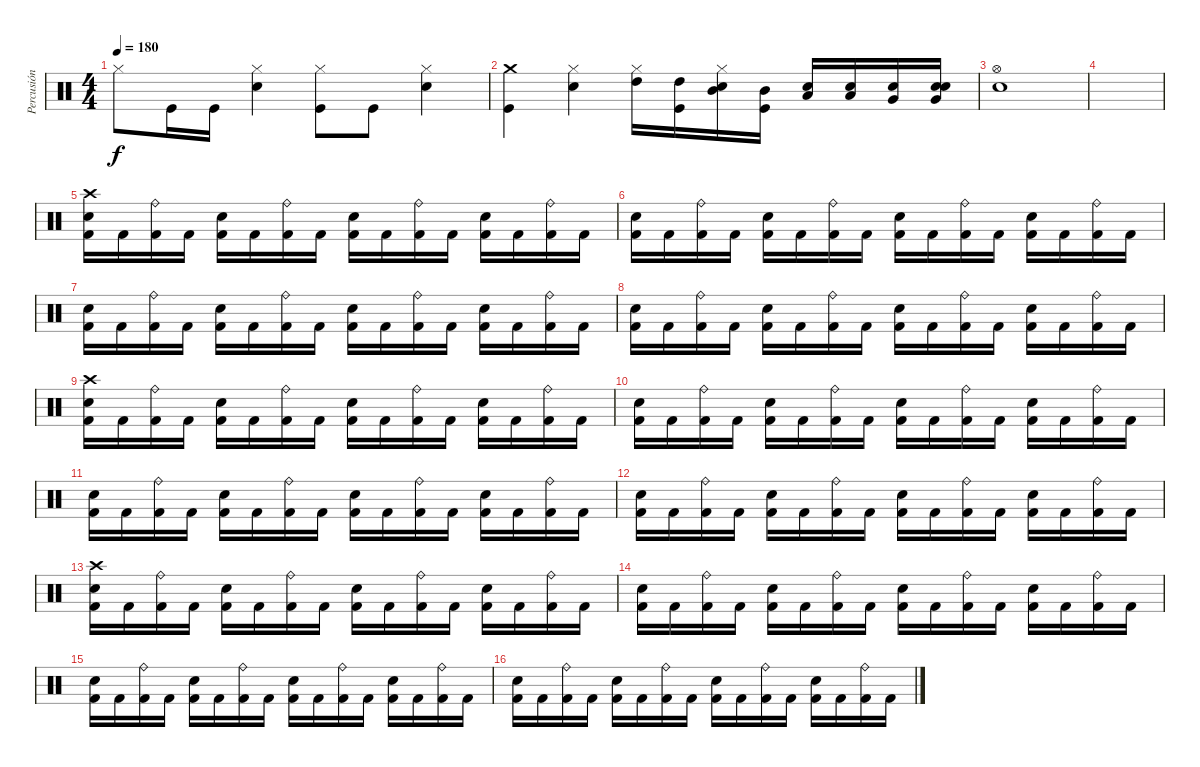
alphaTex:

\track ("Percusión" "Percusión") {instrument percussion}
\staff {score}
\articulation defaults
\ts (4 4)
\tempo 180
\clef neutral
\ks c "Hi-Hat (closed)".8{dy f} "Kick (hit)".16 "Kick (hit)".16
("Snare (hit) 2" "Hi-Hat (closed)").4 ("Kick (hit)" "Hi-Hat (closed)").8 "Kick (hit)".8 ("Snare (hit) 2" "Hi-Hat (closed)").4 |
("Kick (hit)" "Crash medium (hit)").4 ("Hi-Hat (closed)" "Snare (hit) 2").4 ("Hi-Hat (closed)" "High Tom (hit)").16 ("Kick (hit)" "High Tom (hit)").16 ("Snare (hit) 2" "Hi-Hat (closed)" "Mid Tom (hit)").16 ("Kick (hit)" "Mid Tom (hit)").16 ("Snare (hit) 2" "Low Tom (hit)").16 ("Snare (hit) 2" "Low Tom (hit)").16 ("Snare (hit) 2" "Very Low Tom (hit)").16 ("Snare (hit) 2" "Snare (hit)" "Very Low Tom (hit)").16 |
("Electric Snare (hit)" "Hi-Hat (open)").1 |
|
("Snare (hit) 2" "Crash high (hit)" "Kick (hit) 2").16 "Kick (hit) 2".16 ("Ride (bell)" "Kick (hit) 2").16 "Kick (hit) 2".16 ("Snare (hit) 2" "Kick (hit) 2").16 "Kick (hit) 2".16 ("Ride (bell)" "Kick (hit) 2").16 "Kick (hit) 2".16 ("Snare (hit) 2" "Kick (hit) 2").16 "Kick (hit) 2".16 ("Ride (bell)" "Kick (hit) 2").16 "Kick (hit) 2".16 ("Snare (hit) 2" "Kick (hit) 2").16 "Kick (hit) 2".16 ("Ride (bell)" "Kick (hit) 2").16 "Kick (hit) 2".16 |
("Snare (hit) 2" "Kick (hit) 2").16 "Kick (hit) 2".16 ("Ride (bell)" "Kick (hit) 2").16 "Kick (hit) 2".16 ("Snare (hit) 2" "Kick (hit) 2").16 "Kick (hit) 2".16 ("Ride (bell)" "Kick (hit) 2").16 "Kick (hit) 2".16 ("Snare (hit) 2" "Kick (hit) 2").16 "Kick (hit) 2".16 ("Ride (bell)" "Kick (hit) 2").16 "Kick (hit) 2".16 ("Snare (hit) 2" "Kick (hit) 2").16 "Kick (hit) 2".16 ("Ride (bell)" "Kick (hit) 2").16 "Kick (hit) 2".16 |
("Snare (hit) 2" "Kick (hit) 2").16 "Kick (hit) 2".16 ("Ride (bell)" "Kick (hit) 2").16 "Kick (hit) 2".16 ("Snare (hit) 2" "Kick (hit) 2").16 "Kick (hit) 2".16 ("Ride (bell)" "Kick (hit) 2").16 "Kick (hit) 2".16 ("Snare (hit) 2" "Kick (hit) 2").16 "Kick (hit) 2".16 ("Ride (bell)" "Kick (hit) 2").16 "Kick (hit) 2".16 ("Snare (hit) 2" "Kick (hit) 2").16 "Kick (hit) 2".16 ("Ride (bell)" "Kick (hit) 2").16 "Kick (hit) 2".16 |
("Snare (hit) 2" "Kick (hit) 2").16 "Kick (hit) 2".16 ("Ride (bell)" "Kick (hit) 2").16 "Kick (hit) 2".16 ("Snare (hit) 2" "Kick (hit) 2").16 "Kick (hit) 2".16 ("Ride (bell)" "Kick (hit) 2").16 "Kick (hit) 2".16 ("Snare (hit) 2" "Kick (hit) 2").16 "Kick (hit) 2".16 ("Ride (bell)" "Kick (hit) 2").16 "Kick (hit) 2".16 ("Snare (hit) 2" "Kick (hit) 2").16 "Kick (hit) 2".16 ("Ride (bell)" "Kick (hit) 2").16 "Kick (hit) 2".16 |
("Snare (hit) 2" "Crash high (hit)" "Kick (hit) 2").16 "Kick (hit) 2".16 ("Ride (bell)" "Kick (hit) 2").16 "Kick (hit) 2".16 ("Snare (hit) 2" "Kick (hit) 2").16 "Kick (hit) 2".16 ("Ride (bell)" "Kick (hit) 2").16 "Kick (hit) 2".16 ("Snare (hit) 2" "Kick (hit) 2").16 "Kick (hit) 2".16 ("Ride (bell)" "Kick (hit) 2").16 "Kick (hit) 2".16 ("Snare (hit) 2" "Kick (hit) 2").16 "Kick (hit) 2".16 ("Ride (bell)" "Kick (hit) 2").16 "Kick (hit) 2".16 |
("Snare (hit) 2" "Kick (hit) 2").16 "Kick (hit) 2".16 ("Ride (bell)" "Kick (hit) 2").16 "Kick (hit) 2".16 ("Snare (hit) 2" "Kick (hit) 2").16 "Kick (hit) 2".16 ("Ride (bell)" "Kick (hit) 2").16 "Kick (hit) 2".16 ("Snare (hit) 2" "Kick (hit) 2").16 "Kick (hit) 2".16 ("Ride (bell)" "Kick (hit) 2").16 "Kick (hit) 2".16 ("Snare (hit) 2" "Kick (hit) 2").16 "Kick (hit) 2".16 ("Ride (bell)" "Kick (hit) 2").16 "Kick (hit) 2".16 |
("Snare (hit) 2" "Kick (hit) 2").16 "Kick (hit) 2".16 ("Ride (bell)" "Kick (hit) 2").16 "Kick (hit) 2".16 ("Snare (hit) 2" "Kick (hit) 2").16 "Kick (hit) 2".16 ("Ride (bell)" "Kick (hit) 2").16 "Kick (hit) 2".16 ("Snare (hit) 2" "Kick (hit) 2").16 "Kick (hit) 2".16 ("Ride (bell)" "Kick (hit) 2").16 "Kick (hit) 2".16 ("Snare (hit) 2" "Kick (hit) 2").16 "Kick (hit) 2".16 ("Ride (bell)" "Kick (hit) 2").16 "Kick (hit) 2".16 |
("Snare (hit) 2" "Kick (hit) 2").16 "Kick (hit) 2".16 ("Ride (bell)" "Kick (hit) 2").16 "Kick (hit) 2".16 ("Snare (hit) 2" "Kick (hit) 2").16 "Kick (hit) 2".16 ("Ride (bell)" "Kick (hit) 2").16 "Kick (hit) 2".16 ("Snare (hit) 2" "Kick (hit) 2").16 "Kick (hit) 2".16 ("Ride (bell)" "Kick (hit) 2").16 "Kick (hit) 2".16 ("Snare (hit) 2" "Kick (hit) 2").16 "Kick (hit) 2".16 ("Ride (bell)" "Kick (hit) 2").16 "Kick (hit) 2".16 |
("Snare (hit) 2" "Crash high (hit)" "Kick (hit) 2").16 "Kick (hit) 2".16 ("Ride (bell)" "Kick (hit) 2").16 "Kick (hit) 2".16 ("Snare (hit) 2" "Kick (hit) 2").16 "Kick (hit) 2".16 ("Ride (bell)" "Kick (hit) 2").16 "Kick (hit) 2".16 ("Snare (hit) 2" "Kick (hit) 2").16 "Kick (hit) 2".16 ("Ride (bell)" "Kick (hit) 2").16 "Kick (hit) 2".16 ("Snare (hit) 2" "Kick (hit) 2").16 "Kick (hit) 2".16 ("Ride (bell)" "Kick (hit) 2").16 "Kick (hit) 2".16 |
("Snare (hit) 2" "Kick (hit) 2").16 "Kick (hit) 2".16 ("Ride (bell)" "Kick (hit) 2").16 "Kick (hit) 2".16 ("Snare (hit) 2" "Kick (hit) 2").16 "Kick (hit) 2".16 ("Ride (bell)" "Kick (hit) 2").16 "Kick (hit) 2".16 ("Snare (hit) 2" "Kick (hit) 2").16 "Kick (hit) 2".16 ("Ride (bell)" "Kick (hit) 2").16 "Kick (hit) 2".16 ("Snare (hit) 2" "Kick (hit) 2").16 "Kick (hit) 2".16 ("Ride (bell)" "Kick (hit) 2").16 "Kick (hit) 2".16 |
("Snare (hit) 2" "Kick (hit) 2").16 "Kick (hit) 2".16 ("Ride (bell)" "Kick (hit) 2").16 "Kick (hit) 2".16 ("Snare (hit) 2" "Kick (hit) 2").16 "Kick (hit) 2".16 ("Ride (bell)" "Kick (hit) 2").16 "Kick (hit) 2".16 ("Snare (hit) 2" "Kick (hit) 2").16 "Kick (hit) 2".16 ("Ride (bell)" "Kick (hit) 2").16 "Kick (hit) 2".16 ("Snare (hit) 2" "Kick (hit) 2").16 "Kick (hit) 2".16 ("Ride (bell)" "Kick (hit) 2").16 "Kick (hit) 2".16 |
("Snare (hit) 2" "Kick (hit) 2").16 "Kick (hit) 2".16 ("Ride (bell)" "Kick (hit) 2").16 "Kick (hit) 2".16 ("Snare (hit) 2" "Kick (hit) 2").16 "Kick (hit) 2".16 ("Ride (bell)" "Kick (hit) 2").16 "Kick (hit) 2".16 ("Snare (hit) 2" "Kick (hit) 2").16 "Kick (hit) 2".16 ("Ride (bell)" "Kick (hit) 2").16 "Kick (hit) 2".16 ("Snare (hit) 2" "Kick (hit) 2").16 "Kick (hit) 2".16 ("Ride (bell)" "Kick (hit) 2").16 "Kick (hit) 2".16
